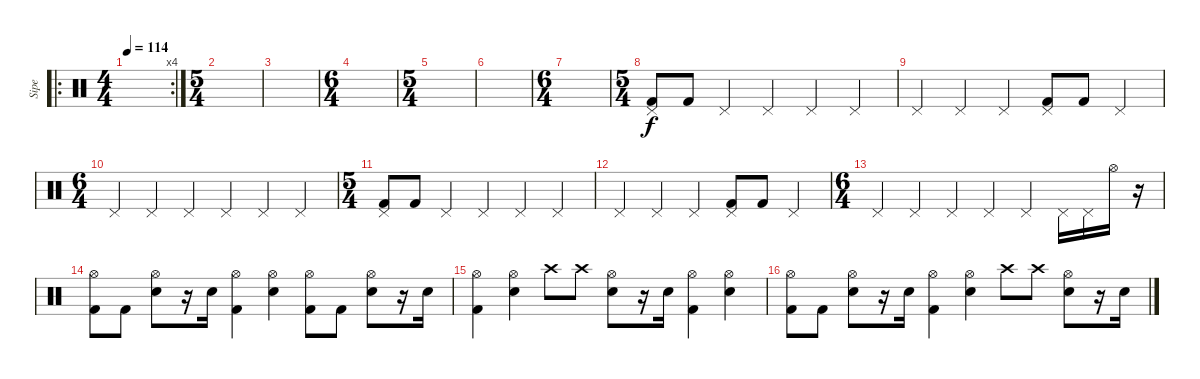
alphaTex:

\track ("Sipe" "Sipe") {instrument percussion}
\staff {score}
\articulation defaults
\ro
\rc 4
\ts (4 4)
\tempo 114
\clef neutral
\ks c
|
\ts (5 4)
|
|
\ts (6 4)
|
\ts (5 4)
|
|
\ts (6 4)
|
\ts (5 4)
("Pedal Hi-Hat (hit)" "Kick (hit) 2").8 "Kick (hit) 2".8 "Pedal Hi-Hat (hit)".4 "Pedal Hi-Hat (hit)".4 "Pedal Hi-Hat (hit)".4 "Pedal Hi-Hat (hit)".4 |
"Pedal Hi-Hat (hit)".4 "Pedal Hi-Hat (hit)".4 "Pedal Hi-Hat (hit)".4 ("Pedal Hi-Hat (hit)" "Kick (hit) 2").8 "Kick (hit) 2".8 "Pedal Hi-Hat (hit)".4 |
\ts (6 4)
"Pedal Hi-Hat (hit)".4 "Pedal Hi-Hat (hit)".4 "Pedal Hi-Hat (hit)".4 "Pedal Hi-Hat (hit)".4 "Pedal Hi-Hat (hit)".4 "Pedal Hi-Hat (hit)".4 |
\ts (5 4)
("Pedal Hi-Hat (hit)" "Kick (hit) 2").8 "Kick (hit) 2".8 "Pedal Hi-Hat (hit)".4 "Pedal Hi-Hat (hit)".4 "Pedal Hi-Hat (hit)".4 "Pedal Hi-Hat (hit)".4 |
"Pedal Hi-Hat (hit)".4 "Pedal Hi-Hat (hit)".4 "Pedal Hi-Hat (hit)".4 ("Pedal Hi-Hat (hit)" "Kick (hit) 2").8 "Kick (hit) 2".8 "Pedal Hi-Hat (hit)".4 |
\ts (6 4)
"Pedal Hi-Hat (hit)".4 "Pedal Hi-Hat (hit)".4 "Pedal Hi-Hat (hit)".4 "Pedal Hi-Hat (hit)".4 "Pedal Hi-Hat (hit)".4 "Pedal Hi-Hat (hit)".16 "Pedal Hi-Hat (hit)".16 "Hi-Hat (open)".16 r.16 |
("Hi-Hat (open)" "Kick (hit) 2").8 "Kick (hit) 2".8 ("Hi-Hat (open)" "Snare (hit) 2").8 r.16 "Snare (hit) 2".16 ("Hi-Hat (open)" "Kick (hit) 2").4 ("Hi-Hat (open)" "Snare (hit) 2").4 ("Hi-Hat (open)" "Kick (hit) 2").8 "Kick (hit) 2".8 ("Hi-Hat (open)" "Snare (hit) 2").8 r.16 "Snare (hit) 2".16 |
("Hi-Hat (open)" "Kick (hit) 2").4 ("Hi-Hat (open)" "Snare (hit) 2").4 "Crash high (hit)".8 "Crash high (hit)".8 ("Hi-Hat (open)" "Snare (hit) 2").8 r.16 "Snare (hit) 2".16 ("Hi-Hat (open)" "Kick (hit) 2").4 ("Hi-Hat (open)" "Snare (hit) 2").4 |
("Hi-Hat (open)" "Kick (hit) 2").8 "Kick (hit) 2".8 ("Hi-Hat (open)" "Snare (hit) 2").8 r.16 "Snare (hit) 2".16 ("Hi-Hat (open)" "Kick (hit) 2").4 ("Hi-Hat (open)" "Snare (hit) 2").4 "Crash high (hit)".8 "Crash high (hit)".8 ("Hi-Hat (open)" "Snare (hit) 2").8 r.16 "Snare (hit) 2".16
